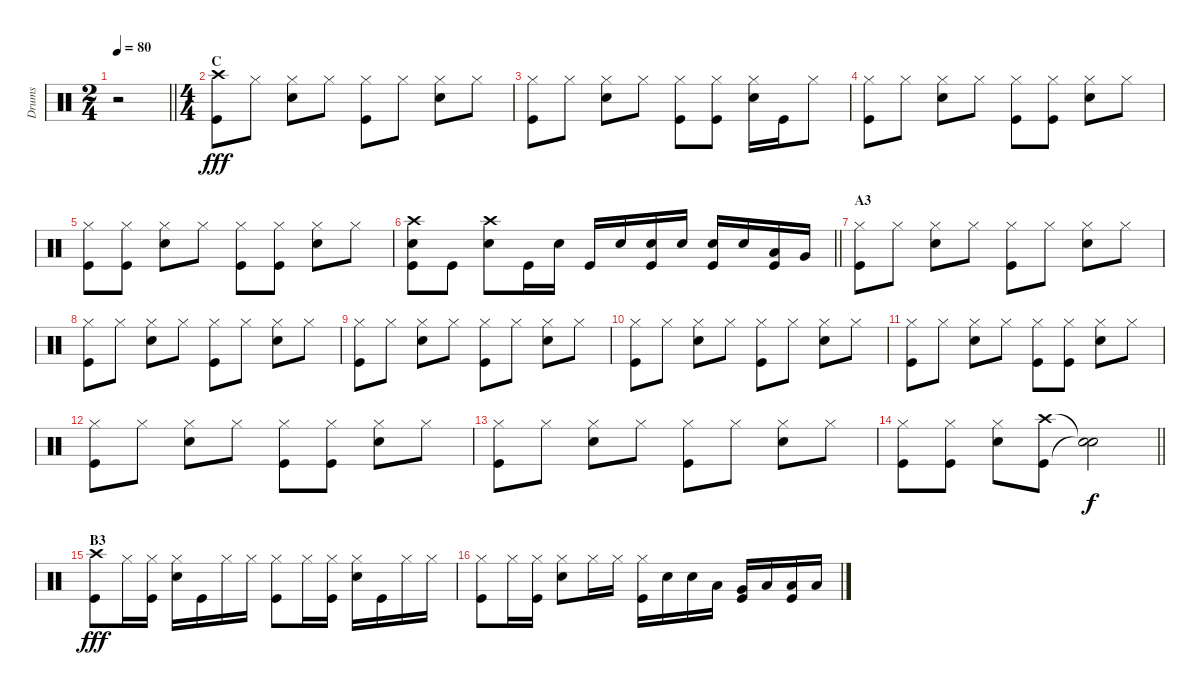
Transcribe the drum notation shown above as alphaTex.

\track ("Drums" "Drums") {instrument percussion}
\staff {score}
\articulation defaults
\ts (2 4)
\tempo 80
\clef neutral
\barLineRight lightlight
\ks c
r.2{dy f} |
\ts (4 4)
\section ("" "C")
("Crash high (hit)" "Kick (hit)").8{dy fff} "Hi-Hat (closed)".8 ("Hi-Hat (closed)" "Snare (hit) 2").8 "Hi-Hat (closed)".8 ("Hi-Hat (closed)" "Kick (hit)").8 "Hi-Hat (closed)".8 ("Hi-Hat (closed)" "Snare (hit) 2").8 "Hi-Hat (closed)".8 |
("Hi-Hat (closed)" "Kick (hit)").8 "Hi-Hat (closed)".8 ("Hi-Hat (closed)" "Snare (hit) 2").8 "Hi-Hat (closed)".8 ("Hi-Hat (closed)" "Kick (hit)").8 ("Hi-Hat (closed)" "Kick (hit)").8 ("Hi-Hat (closed)" "Snare (hit) 2").16 "Kick (hit)".16 "Hi-Hat (closed)".8 |
("Hi-Hat (closed)" "Kick (hit)").8 "Hi-Hat (closed)".8 ("Hi-Hat (closed)" "Snare (hit) 2").8 "Hi-Hat (closed)".8 ("Hi-Hat (closed)" "Kick (hit)").8 ("Hi-Hat (closed)" "Kick (hit)").8 ("Hi-Hat (closed)" "Snare (hit) 2").8 "Hi-Hat (closed)".8 |
("Hi-Hat (closed)" "Kick (hit)").8 ("Hi-Hat (closed)" "Kick (hit)").8 ("Hi-Hat (closed)" "Snare (hit) 2").8 "Hi-Hat (closed)".8 ("Hi-Hat (closed)" "Kick (hit)").8 ("Hi-Hat (closed)" "Kick (hit)").8 ("Hi-Hat (closed)" "Snare (hit) 2").8 "Hi-Hat (closed)".8 |
\barLineRight lightlight
("Crash high (hit)" "Snare (hit) 2" "Kick (hit)").8 "Kick (hit)".8 ("Crash high (hit)" "Snare (hit) 2").8 "Kick (hit)".16 "Snare (hit) 2".16 "Kick (hit)".16 "Snare (hit) 2".16 ("Snare (hit) 2" "Kick (hit)").16 "Snare (hit) 2".16 ("Snare (hit) 2" "Kick (hit)").16 "Snare (hit) 2".16 ("Low Tom (hit)" "Kick (hit)").16 "Very Low Tom (hit)".16 |
\section ("" "A3")
("Hi-Hat (closed)" "Kick (hit)").8 "Hi-Hat (closed)".8 ("Hi-Hat (closed)" "Snare (hit) 2").8 "Hi-Hat (closed)".8 ("Hi-Hat (closed)" "Kick (hit)").8 "Hi-Hat (closed)".8 ("Hi-Hat (closed)" "Snare (hit) 2").8 "Hi-Hat (closed)".8 |
("Hi-Hat (closed)" "Kick (hit)").8 "Hi-Hat (closed)".8 ("Hi-Hat (closed)" "Snare (hit) 2").8 "Hi-Hat (closed)".8 ("Hi-Hat (closed)" "Kick (hit)").8 "Hi-Hat (closed)".8 ("Hi-Hat (closed)" "Snare (hit) 2").8 "Hi-Hat (closed)".8 |
("Hi-Hat (closed)" "Kick (hit)").8 "Hi-Hat (closed)".8 ("Hi-Hat (closed)" "Snare (hit) 2").8 "Hi-Hat (closed)".8 ("Hi-Hat (closed)" "Kick (hit)").8 "Hi-Hat (closed)".8 ("Hi-Hat (closed)" "Snare (hit) 2").8 "Hi-Hat (closed)".8 |
("Hi-Hat (closed)" "Kick (hit)").8 "Hi-Hat (closed)".8 ("Hi-Hat (closed)" "Snare (hit) 2").8 "Hi-Hat (closed)".8 ("Hi-Hat (closed)" "Kick (hit)").8 "Hi-Hat (closed)".8 ("Hi-Hat (closed)" "Snare (hit) 2").8 "Hi-Hat (closed)".8 |
("Hi-Hat (closed)" "Kick (hit)").8 "Hi-Hat (closed)".8 ("Hi-Hat (closed)" "Snare (hit) 2").8 "Hi-Hat (closed)".8 ("Hi-Hat (closed)" "Kick (hit)").8 ("Hi-Hat (closed)" "Kick (hit)").8 ("Hi-Hat (closed)" "Snare (hit) 2").8 "Hi-Hat (closed)".8 |
("Hi-Hat (closed)" "Kick (hit)").8 "Hi-Hat (closed)".8 ("Hi-Hat (closed)" "Snare (hit) 2").8 "Hi-Hat (closed)".8 ("Hi-Hat (closed)" "Kick (hit)").8 ("Hi-Hat (closed)" "Kick (hit)").8 ("Hi-Hat (closed)" "Snare (hit) 2").8 "Hi-Hat (closed)".8 |
("Hi-Hat (closed)" "Kick (hit)").8 "Hi-Hat (closed)".8 ("Hi-Hat (closed)" "Snare (hit) 2").8 "Hi-Hat (closed)".8 ("Hi-Hat (closed)" "Kick (hit)").8 "Hi-Hat (closed)".8 ("Hi-Hat (closed)" "Snare (hit) 2").8 "Hi-Hat (closed)".8 |
\barLineRight lightlight
("Hi-Hat (closed)" "Kick (hit)").8 ("Hi-Hat (closed)" "Kick (hit)").8 ("Hi-Hat (closed)" "Snare (hit) 2").8 ("Crash high (hit)" "Kick (hit)").8 ("Snare (hit)"{t} "Snare (hit)"{t}).2{dy f} |
\section ("" "B3")
("Crash high (hit)" "Kick (hit)").8{dy fff} "Hi-Hat (closed)".16 ("Hi-Hat (closed)" "Kick (hit)").16 ("Hi-Hat (closed)" "Snare (hit) 2").16 "Kick (hit)".16 "Hi-Hat (closed)".16 "Hi-Hat (closed)".16 ("Hi-Hat (closed)" "Kick (hit)").8 "Hi-Hat (closed)".16 ("Hi-Hat (closed)" "Kick (hit)").16 ("Hi-Hat (closed)" "Snare (hit) 2").16 "Kick (hit)".16 "Hi-Hat (closed)".16 "Hi-Hat (closed)".16 |
("Hi-Hat (closed)" "Kick (hit)").8 "Hi-Hat (closed)".16 ("Hi-Hat (closed)" "Kick (hit)").16 ("Hi-Hat (closed)" "Snare (hit) 2").8 "Hi-Hat (closed)".16 "Hi-Hat (closed)".16 ("Hi-Hat (closed)" "Kick (hit)").16 "Snare (hit) 2".16 "Snare (hit) 2".16 "Low Tom (hit)".16 ("Very Low Tom (hit)" "Kick (hit)").16 "Low Tom (hit)".16 ("Low Floor Tom (hit)" "Kick (hit)").16 "Low Tom (hit)".16
